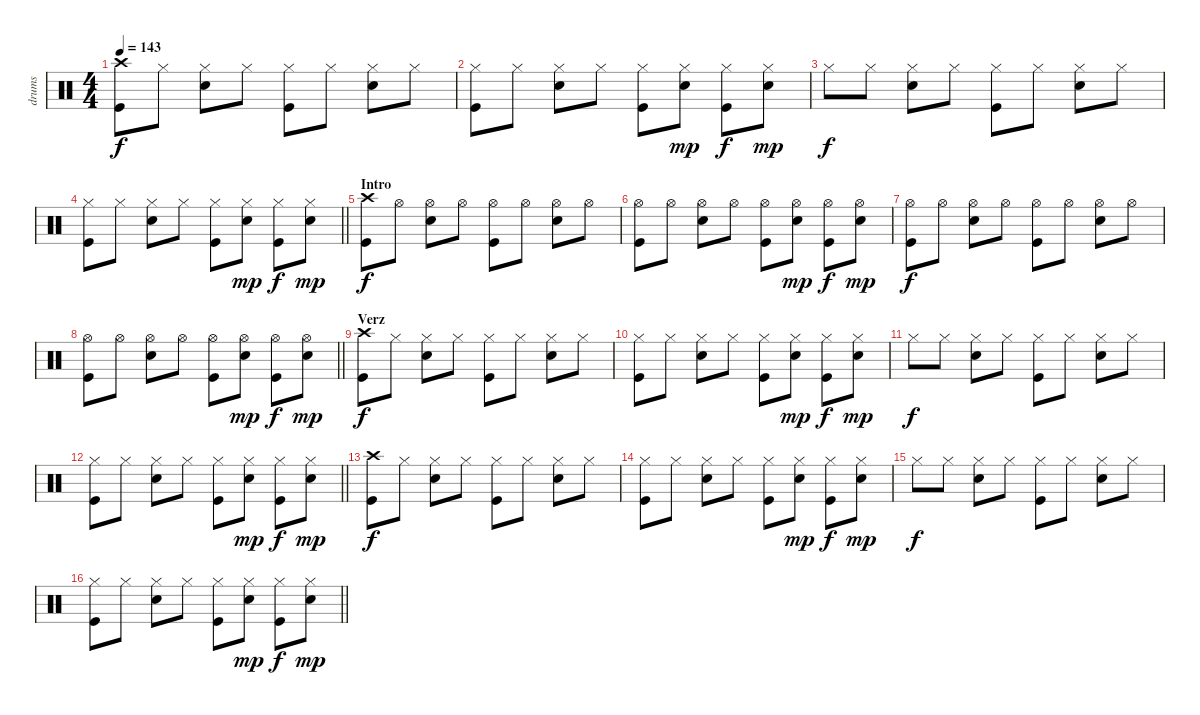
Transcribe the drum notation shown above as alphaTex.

\track ("drums" "drums") {instrument percussion}
\staff {score}
\articulation defaults
\ts (4 4)
\tempo 143
\clef neutral
\ks c
("Crash high (hit)" "Kick (hit)").8{dy f} "Hi-Hat (closed)".8 ("Hi-Hat (closed)" "Snare (hit) 2").8 "Hi-Hat (closed)".8 ("Hi-Hat (closed)" "Kick (hit)").8 "Hi-Hat (closed)".8 ("Hi-Hat (closed)" "Snare (hit) 2").8 "Hi-Hat (closed)".8 |
("Hi-Hat (closed)" "Kick (hit)").8 "Hi-Hat (closed)".8 ("Hi-Hat (closed)" "Snare (hit) 2").8 "Hi-Hat (closed)".8 ("Hi-Hat (closed)" "Kick (hit)").8 ("Hi-Hat (closed)" "Snare (hit) 2").8{dy mp} ("Hi-Hat (closed)" "Kick (hit)").8{dy f} ("Hi-Hat (closed)" "Snare (hit) 2").8{dy mp} |
"Hi-Hat (closed)".8{dy f} "Hi-Hat (closed)".8 ("Hi-Hat (closed)" "Snare (hit) 2").8 "Hi-Hat (closed)".8 ("Hi-Hat (closed)" "Kick (hit)").8 "Hi-Hat (closed)".8 ("Hi-Hat (closed)" "Snare (hit) 2").8 "Hi-Hat (closed)".8 |
\barLineRight lightlight
("Hi-Hat (closed)" "Kick (hit)").8 "Hi-Hat (closed)".8 ("Hi-Hat (closed)" "Snare (hit) 2").8 "Hi-Hat (closed)".8 ("Hi-Hat (closed)" "Kick (hit)").8 ("Hi-Hat (closed)" "Snare (hit) 2").8{dy mp} ("Hi-Hat (closed)" "Kick (hit)").8{dy f} ("Hi-Hat (closed)" "Snare (hit) 2").8{dy mp} |
\section ("" "Intro")
("Crash high (hit)" "Kick (hit)").8{dy f} "Hi-Hat (open)".8 ("Hi-Hat (open)" "Snare (hit) 2").8 "Hi-Hat (open)".8 ("Hi-Hat (open)" "Kick (hit)").8 "Hi-Hat (open)".8 ("Hi-Hat (open)" "Snare (hit) 2").8 "Hi-Hat (open)".8 |
("Hi-Hat (open)" "Kick (hit)").8 "Hi-Hat (open)".8 ("Hi-Hat (open)" "Snare (hit) 2").8 "Hi-Hat (open)".8 ("Hi-Hat (open)" "Kick (hit)").8 ("Hi-Hat (open)" "Snare (hit) 2").8{dy mp} ("Hi-Hat (open)" "Kick (hit)").8{dy f} ("Hi-Hat (open)" "Snare (hit) 2").8{dy mp} |
("Hi-Hat (open)" "Kick (hit)").8{dy f} "Hi-Hat (open)".8 ("Hi-Hat (open)" "Snare (hit) 2").8 "Hi-Hat (open)".8 ("Hi-Hat (open)" "Kick (hit)").8 "Hi-Hat (open)".8 ("Hi-Hat (open)" "Snare (hit) 2").8 "Hi-Hat (open)".8 |
\barLineRight lightlight
("Hi-Hat (open)" "Kick (hit)").8 "Hi-Hat (open)".8 ("Hi-Hat (open)" "Snare (hit) 2").8 "Hi-Hat (open)".8 ("Hi-Hat (open)" "Kick (hit)").8 ("Hi-Hat (open)" "Snare (hit) 2").8{dy mp} ("Hi-Hat (open)" "Kick (hit)").8{dy f} ("Hi-Hat (open)" "Snare (hit) 2").8{dy mp} |
\section ("" "Verz")
("Crash high (hit)" "Kick (hit)").8{dy f} "Hi-Hat (closed)".8 ("Hi-Hat (closed)" "Snare (hit) 2").8 "Hi-Hat (closed)".8 ("Hi-Hat (closed)" "Kick (hit)").8 "Hi-Hat (closed)".8 ("Hi-Hat (closed)" "Snare (hit) 2").8 "Hi-Hat (closed)".8 |
("Hi-Hat (closed)" "Kick (hit)").8 "Hi-Hat (closed)".8 ("Hi-Hat (closed)" "Snare (hit) 2").8 "Hi-Hat (closed)".8 ("Hi-Hat (closed)" "Kick (hit)").8 ("Hi-Hat (closed)" "Snare (hit) 2").8{dy mp} ("Hi-Hat (closed)" "Kick (hit)").8{dy f} ("Hi-Hat (closed)" "Snare (hit) 2").8{dy mp} |
"Hi-Hat (closed)".8{dy f} "Hi-Hat (closed)".8 ("Hi-Hat (closed)" "Snare (hit) 2").8 "Hi-Hat (closed)".8 ("Hi-Hat (closed)" "Kick (hit)").8 "Hi-Hat (closed)".8 ("Hi-Hat (closed)" "Snare (hit) 2").8 "Hi-Hat (closed)".8 |
\barLineRight lightlight
("Hi-Hat (closed)" "Kick (hit)").8 "Hi-Hat (closed)".8 ("Hi-Hat (closed)" "Snare (hit) 2").8 "Hi-Hat (closed)".8 ("Hi-Hat (closed)" "Kick (hit)").8 ("Hi-Hat (closed)" "Snare (hit) 2").8{dy mp} ("Hi-Hat (closed)" "Kick (hit)").8{dy f} ("Hi-Hat (closed)" "Snare (hit) 2").8{dy mp} |
("Crash high (hit)" "Kick (hit)").8{dy f} "Hi-Hat (closed)".8 ("Hi-Hat (closed)" "Snare (hit) 2").8 "Hi-Hat (closed)".8 ("Hi-Hat (closed)" "Kick (hit)").8 "Hi-Hat (closed)".8 ("Hi-Hat (closed)" "Snare (hit) 2").8 "Hi-Hat (closed)".8 |
("Hi-Hat (closed)" "Kick (hit)").8 "Hi-Hat (closed)".8 ("Hi-Hat (closed)" "Snare (hit) 2").8 "Hi-Hat (closed)".8 ("Hi-Hat (closed)" "Kick (hit)").8 ("Hi-Hat (closed)" "Snare (hit) 2").8{dy mp} ("Hi-Hat (closed)" "Kick (hit)").8{dy f} ("Hi-Hat (closed)" "Snare (hit) 2").8{dy mp} |
"Hi-Hat (closed)".8{dy f} "Hi-Hat (closed)".8 ("Hi-Hat (closed)" "Snare (hit) 2").8 "Hi-Hat (closed)".8 ("Hi-Hat (closed)" "Kick (hit)").8 "Hi-Hat (closed)".8 ("Hi-Hat (closed)" "Snare (hit) 2").8 "Hi-Hat (closed)".8 |
\barLineRight lightlight
("Hi-Hat (closed)" "Kick (hit)").8 "Hi-Hat (closed)".8 ("Hi-Hat (closed)" "Snare (hit) 2").8 "Hi-Hat (closed)".8 ("Hi-Hat (closed)" "Kick (hit)").8 ("Hi-Hat (closed)" "Snare (hit) 2").8{dy mp} ("Hi-Hat (closed)" "Kick (hit)").8{dy f} ("Hi-Hat (closed)" "Snare (hit) 2").8{dy mp}
